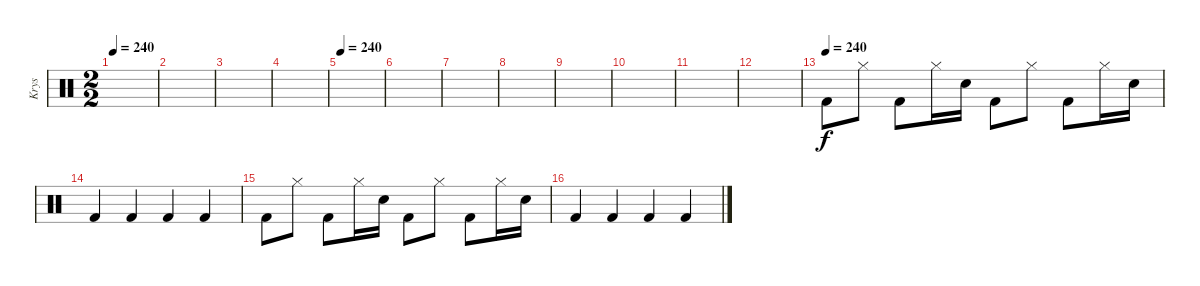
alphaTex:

\track ("Krys" "Krys") {instrument percussion}
\staff {score}
\articulation defaults
\ts (2 2)
\tempo 240
\clef neutral
\ks c
|
|
|
|
\tempo 240
|
|
|
|
|
|
|
|
\tempo (240)
"Kick (hit) 2".8 "Hi-Hat (closed)".8 "Kick (hit) 2".8 "Hi-Hat (closed)".16 "Snare (hit) 2".16 "Kick (hit) 2".8 "Hi-Hat (closed)".8 "Kick (hit) 2".8 "Hi-Hat (closed)".16 "Snare (hit) 2".16 |
"Kick (hit) 2".4 "Kick (hit) 2".4 "Kick (hit) 2".4 "Kick (hit) 2".4 |
"Kick (hit) 2".8 "Hi-Hat (closed)".8 "Kick (hit) 2".8 "Hi-Hat (closed)".16 "Snare (hit) 2".16 "Kick (hit) 2".8 "Hi-Hat (closed)".8 "Kick (hit) 2".8 "Hi-Hat (closed)".16 "Snare (hit) 2".16 |
"Kick (hit) 2".4 "Kick (hit) 2".4 "Kick (hit) 2".4 "Kick (hit) 2".4
